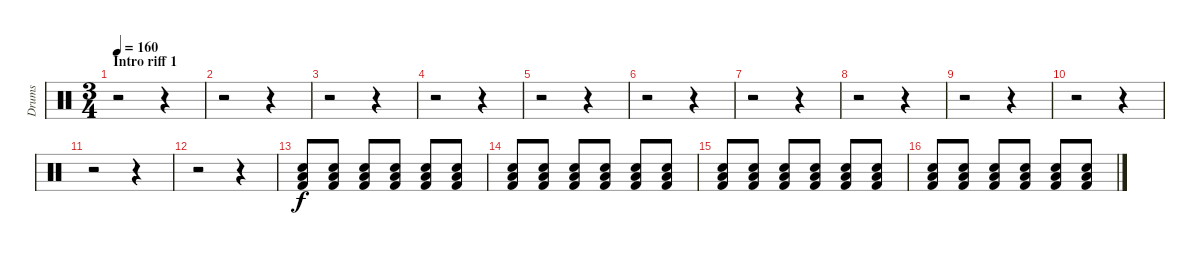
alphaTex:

\track ("Drums" "Drums") {instrument percussion}
\staff {score}
\articulation defaults
\ts (3 4)
\section ("" "Intro riff 1")
\tempo 160
\clef neutral
\ks c
r.2{dy f} r.4 |
r.2 r.4 |
r.2 r.4 |
r.2 r.4 |
r.2 r.4 |
r.2 r.4 |
r.2 r.4 |
r.2 r.4 |
r.2 r.4 |
r.2 r.4 |
r.2 r.4 |
r.2{volume 0} r.4 |
("Low Floor Tom (hit)" "Snare (hit) 2" "Kick (hit) 2").8{volume 16} ("Low Floor Tom (hit)" "Snare (hit) 2" "Kick (hit) 2").8 ("Low Floor Tom (hit)" "Snare (hit) 2" "Kick (hit) 2").8 ("Low Floor Tom (hit)" "Snare (hit) 2" "Kick (hit) 2").8 ("Low Floor Tom (hit)" "Snare (hit) 2" "Kick (hit) 2").8 ("Low Floor Tom (hit)" "Snare (hit) 2" "Kick (hit) 2").8 |
("Low Floor Tom (hit)" "Snare (hit) 2" "Kick (hit) 2").8 ("Low Floor Tom (hit)" "Snare (hit) 2" "Kick (hit) 2").8 ("Low Floor Tom (hit)" "Snare (hit) 2" "Kick (hit) 2").8 ("Low Floor Tom (hit)" "Snare (hit) 2" "Kick (hit) 2").8 ("Low Floor Tom (hit)" "Snare (hit) 2" "Kick (hit) 2").8 ("Low Floor Tom (hit)" "Snare (hit) 2" "Kick (hit) 2").8 |
("Low Floor Tom (hit)" "Snare (hit) 2" "Kick (hit) 2").8 ("Low Floor Tom (hit)" "Snare (hit) 2" "Kick (hit) 2").8 ("Low Floor Tom (hit)" "Snare (hit) 2" "Kick (hit) 2").8 ("Low Floor Tom (hit)" "Snare (hit) 2" "Kick (hit) 2").8 ("Low Floor Tom (hit)" "Snare (hit) 2" "Kick (hit) 2").8 ("Low Floor Tom (hit)" "Snare (hit) 2" "Kick (hit) 2").8 |
("Low Floor Tom (hit)" "Snare (hit) 2" "Kick (hit) 2").8 ("Low Floor Tom (hit)" "Snare (hit) 2" "Kick (hit) 2").8 ("Low Floor Tom (hit)" "Snare (hit) 2" "Kick (hit) 2").8 ("Low Floor Tom (hit)" "Snare (hit) 2" "Kick (hit) 2").8 ("Low Floor Tom (hit)" "Snare (hit) 2" "Kick (hit) 2").8 ("Low Floor Tom (hit)" "Snare (hit) 2" "Kick (hit) 2").8
